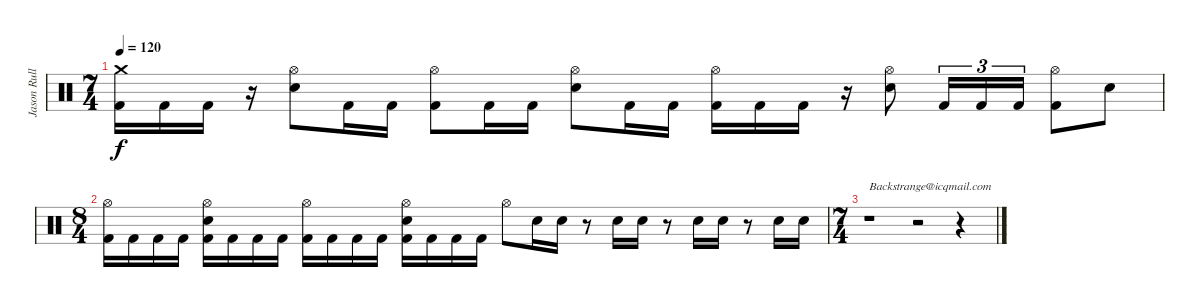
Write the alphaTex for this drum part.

\track ("Jason Rullo" "Jason Rull") {instrument percussion}
\staff {score}
\articulation defaults
\ts (7 4)
\tempo 120
\clef neutral
\ks c
("Crash medium (hit)" "Kick (hit) 2").16{dy f} "Kick (hit) 2".16 "Kick (hit) 2".16 r.16 ("Electric Snare (hit)" "Hi-Hat (open)").8 "Kick (hit) 2".16 "Kick (hit) 2".16 ("Kick (hit) 2" "Hi-Hat (open)").8 "Kick (hit) 2".16 "Kick (hit) 2".16 ("Electric Snare (hit)" "Hi-Hat (open)").8 "Kick (hit) 2".16 "Kick (hit) 2".16 ("Kick (hit) 2" "Hi-Hat (open)").16 "Kick (hit) 2".16 "Kick (hit) 2".16 r.16 ("Hi-Hat (open)" "Electric Snare (hit)").8 "Kick (hit) 2".16{tu (3 2)} "Kick (hit) 2".16{tu (3 2)} "Kick (hit) 2".16{tu (3 2)} ("Kick (hit) 2" "Hi-Hat (open)").8 "Electric Snare (hit)".8 |
\ts (8 4)
("Kick (hit) 2" "Hi-Hat (open)").16 "Kick (hit) 2".16 "Kick (hit) 2".16 "Kick (hit) 2".16 ("Kick (hit) 2" "Electric Snare (hit)" "Hi-Hat (open)").16 "Kick (hit) 2".16 "Kick (hit) 2".16 "Kick (hit) 2".16 ("Kick (hit) 2" "Hi-Hat (open)").16 "Kick (hit) 2".16 "Kick (hit) 2".16 "Kick (hit) 2".16 ("Kick (hit) 2" "Electric Snare (hit)" "Hi-Hat (open)").16 "Kick (hit) 2".16 "Kick (hit) 2".16 "Kick (hit) 2".16 "Hi-Hat (open)".8 "Electric Snare (hit)".16 "Electric Snare (hit)".16 r.8 "Electric Snare (hit)".16 "Electric Snare (hit)".16 r.8 "Electric Snare (hit)".16 "Electric Snare (hit)".16 r.8 "Electric Snare (hit)".16 "Electric Snare (hit)".16 |
\ts (7 4)
r.1{txt "Backstrange@icqmail.com"} r.2 r.4
